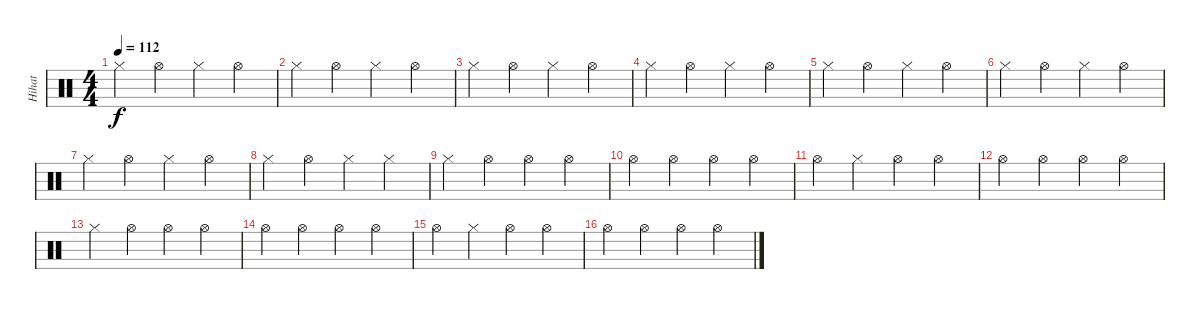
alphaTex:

\track ("Hihat" "Hihat") {instrument percussion}
\staff {score}
\articulation defaults
\ts (4 4)
\tempo 112
\clef neutral
\ks c "Hi-Hat (closed)".4{dy f} "Hi-Hat (open)".4 "Hi-Hat (closed)".4 "Hi-Hat (open)".4
|
"Hi-Hat (closed)".4 "Hi-Hat (open)".4 "Hi-Hat (closed)".4 "Hi-Hat (open)".4 |
"Hi-Hat (closed)".4 "Hi-Hat (open)".4 "Hi-Hat (closed)".4 "Hi-Hat (open)".4 |
"Hi-Hat (closed)".4 "Hi-Hat (open)".4 "Hi-Hat (closed)".4 "Hi-Hat (open)".4 |
"Hi-Hat (closed)".4 "Hi-Hat (open)".4 "Hi-Hat (closed)".4 "Hi-Hat (open)".4 |
"Hi-Hat (closed)".4 "Hi-Hat (open)".4 "Hi-Hat (closed)".4 "Hi-Hat (open)".4 |
"Hi-Hat (closed)".4 "Hi-Hat (open)".4 "Hi-Hat (closed)".4 "Hi-Hat (open)".4 |
"Hi-Hat (closed)".4 "Hi-Hat (open)".4 "Hi-Hat (closed)".4 "Hi-Hat (closed)".4 |
"Hi-Hat (closed)".4 "Hi-Hat (open)".4 "Hi-Hat (open)".4 "Hi-Hat (open)".4 |
"Hi-Hat (open)".4 "Hi-Hat (open)".4 "Hi-Hat (open)".4 "Hi-Hat (open)".4 |
"Hi-Hat (open)".4 "Hi-Hat (closed)".4 "Hi-Hat (open)".4 "Hi-Hat (open)".4 |
"Hi-Hat (open)".4 "Hi-Hat (open)".4 "Hi-Hat (open)".4 "Hi-Hat (open)".4 |
"Hi-Hat (closed)".4 "Hi-Hat (open)".4 "Hi-Hat (open)".4 "Hi-Hat (open)".4 |
"Hi-Hat (open)".4 "Hi-Hat (open)".4 "Hi-Hat (open)".4 "Hi-Hat (open)".4 |
"Hi-Hat (open)".4 "Hi-Hat (closed)".4 "Hi-Hat (open)".4 "Hi-Hat (open)".4 |
"Hi-Hat (open)".4 "Hi-Hat (open)".4 "Hi-Hat (open)".4 "Hi-Hat (open)".4
